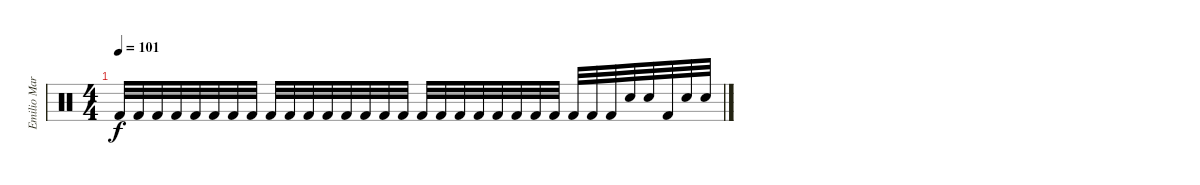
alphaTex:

\track ("Emilio Marquez" "Emilio Mar") {instrument percussion}
\staff {score}
\articulation defaults
\ts (4 4)
\tempo 101
\clef neutral
\ks c "Kick (hit) 2".32{dy f} "Kick (hit) 2".32 "Kick (hit) 2".32 "Kick (hit) 2".32 "Kick (hit) 2".32 "Kick (hit) 2".32 "Kick (hit) 2".32 "Kick (hit) 2".32 "Kick (hit) 2".32 "Kick (hit) 2".32 "Kick (hit) 2".32 "Kick (hit) 2".32 "Kick (hit) 2".32 "Kick (hit) 2".32 "Kick (hit) 2".32 "Kick (hit) 2".32 "Kick (hit) 2".32 "Kick (hit) 2".32 "Kick (hit) 2".32 "Kick (hit) 2".32 "Kick (hit) 2".32 "Kick (hit) 2".32 "Kick (hit) 2".32 "Kick (hit) 2".32 "Kick (hit) 2".32 "Kick (hit) 2".32 "Kick (hit) 2".32 "Snare (hit) 2".32 "Snare (hit) 2".32 "Kick (hit) 2".32 "Snare (hit) 2".32 "Snare (hit) 2".32
